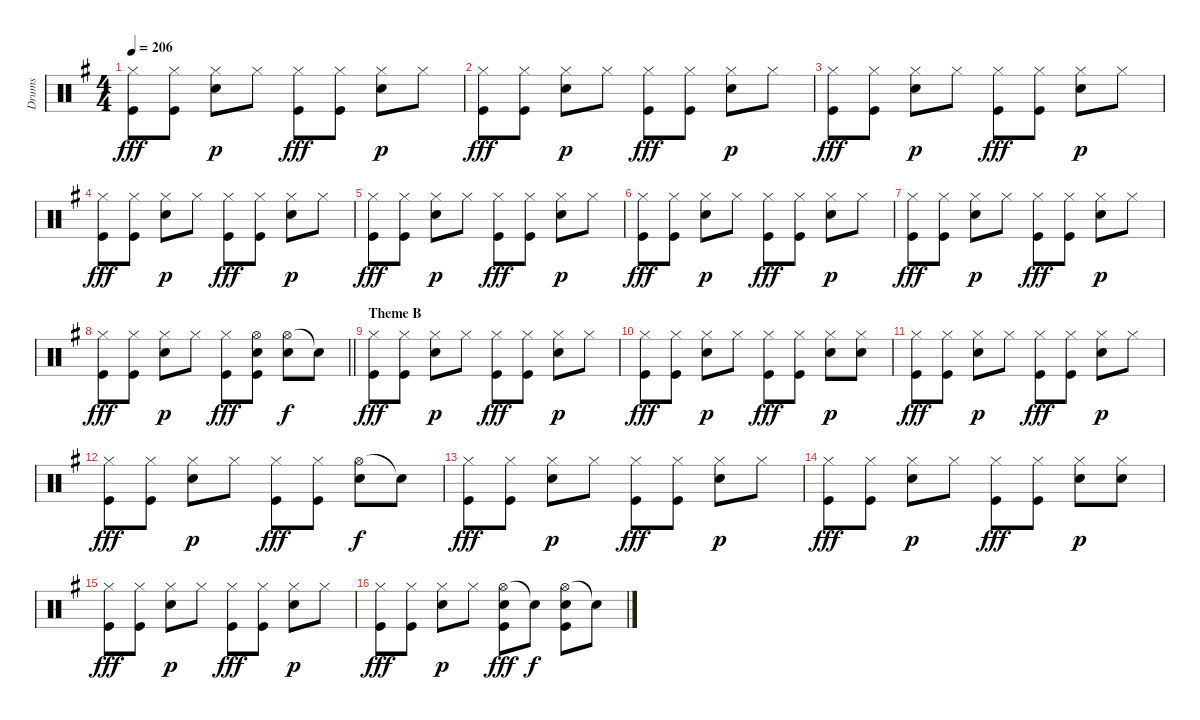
\track ("Drums" "Drums") {instrument percussion}
\staff {score}
\articulation defaults
\ts (4 4)
\tempo 206
\clef neutral
\ks g
("Hi-Hat (closed)" "Kick (hit)").8{dy fff} ("Hi-Hat (closed)" "Kick (hit)").8 ("Hi-Hat (closed)" "Snare (hit) 2").8{dy p} "Hi-Hat (closed)".8 ("Hi-Hat (closed)" "Kick (hit)").8{dy fff} ("Hi-Hat (closed)" "Kick (hit)").8 ("Hi-Hat (closed)" "Snare (hit) 2").8{dy p} "Hi-Hat (closed)".8 |
("Hi-Hat (closed)" "Kick (hit)").8{dy fff} ("Hi-Hat (closed)" "Kick (hit)").8 ("Hi-Hat (closed)" "Snare (hit) 2").8{dy p} "Hi-Hat (closed)".8 ("Hi-Hat (closed)" "Kick (hit)").8{dy fff} ("Hi-Hat (closed)" "Kick (hit)").8 ("Hi-Hat (closed)" "Snare (hit) 2").8{dy p} "Hi-Hat (closed)".8 |
("Hi-Hat (closed)" "Kick (hit)").8{dy fff} ("Hi-Hat (closed)" "Kick (hit)").8 ("Hi-Hat (closed)" "Snare (hit) 2").8{dy p} "Hi-Hat (closed)".8 ("Hi-Hat (closed)" "Kick (hit)").8{dy fff} ("Hi-Hat (closed)" "Kick (hit)").8 ("Hi-Hat (closed)" "Snare (hit) 2").8{dy p} "Hi-Hat (closed)".8 |
("Hi-Hat (closed)" "Kick (hit)").8{dy fff} ("Hi-Hat (closed)" "Kick (hit)").8 ("Hi-Hat (closed)" "Snare (hit) 2").8{dy p} "Hi-Hat (closed)".8 ("Hi-Hat (closed)" "Kick (hit)").8{dy fff} ("Hi-Hat (closed)" "Kick (hit)").8 ("Hi-Hat (closed)" "Snare (hit) 2").8{dy p} "Hi-Hat (closed)".8 |
("Hi-Hat (closed)" "Kick (hit)").8{dy fff} ("Hi-Hat (closed)" "Kick (hit)").8 ("Hi-Hat (closed)" "Snare (hit) 2").8{dy p} "Hi-Hat (closed)".8 ("Hi-Hat (closed)" "Kick (hit)").8{dy fff} ("Hi-Hat (closed)" "Kick (hit)").8 ("Hi-Hat (closed)" "Snare (hit) 2").8{dy p} "Hi-Hat (closed)".8 |
("Hi-Hat (closed)" "Kick (hit)").8{dy fff} ("Hi-Hat (closed)" "Kick (hit)").8 ("Hi-Hat (closed)" "Snare (hit) 2").8{dy p} "Hi-Hat (closed)".8 ("Hi-Hat (closed)" "Kick (hit)").8{dy fff} ("Hi-Hat (closed)" "Kick (hit)").8 ("Hi-Hat (closed)" "Snare (hit) 2").8{dy p} "Hi-Hat (closed)".8 |
("Hi-Hat (closed)" "Kick (hit)").8{dy fff} ("Hi-Hat (closed)" "Kick (hit)").8 ("Hi-Hat (closed)" "Snare (hit) 2").8{dy p} "Hi-Hat (closed)".8 ("Hi-Hat (closed)" "Kick (hit)").8{dy fff} ("Hi-Hat (closed)" "Kick (hit)").8 ("Hi-Hat (closed)" "Snare (hit) 2").8{dy p} "Hi-Hat (closed)".8 |
\barLineRight lightlight
("Hi-Hat (closed)" "Kick (hit)").8{dy fff} ("Hi-Hat (closed)" "Kick (hit)").8 ("Hi-Hat (closed)" "Snare (hit) 2").8{dy p} "Hi-Hat (closed)".8 ("Hi-Hat (closed)" "Kick (hit)").8{dy fff} ("Hi-Hat (open)" "Snare (hit) 2" "Kick (hit)").8 ("Hi-Hat (open)" "Snare (hit) 2").8{dy f} "Snare (hit)"{t}.8 |
\section ("" "Theme B")
("Hi-Hat (closed)" "Kick (hit)").8{dy fff} ("Hi-Hat (closed)" "Kick (hit)").8 ("Hi-Hat (closed)" "Snare (hit) 2").8{dy p} "Hi-Hat (closed)".8 ("Hi-Hat (closed)" "Kick (hit)").8{dy fff} ("Hi-Hat (closed)" "Kick (hit)").8 ("Hi-Hat (closed)" "Snare (hit) 2").8{dy p} "Hi-Hat (closed)".8 |
("Hi-Hat (closed)" "Kick (hit)").8{dy fff} ("Hi-Hat (closed)" "Kick (hit)").8 ("Hi-Hat (closed)" "Snare (hit) 2").8{dy p} "Hi-Hat (closed)".8 ("Hi-Hat (closed)" "Kick (hit)").8{dy fff} ("Hi-Hat (closed)" "Kick (hit)").8 ("Hi-Hat (closed)" "Snare (hit) 2").8{dy p} ("Hi-Hat (closed)" "Snare (hit) 2").8 |
("Hi-Hat (closed)" "Kick (hit)").8{dy fff} ("Hi-Hat (closed)" "Kick (hit)").8 ("Hi-Hat (closed)" "Snare (hit) 2").8{dy p} "Hi-Hat (closed)".8 ("Hi-Hat (closed)" "Kick (hit)").8{dy fff} ("Hi-Hat (closed)" "Kick (hit)").8 ("Hi-Hat (closed)" "Snare (hit) 2").8{dy p} "Hi-Hat (closed)".8 |
("Hi-Hat (closed)" "Kick (hit)").8{dy fff} ("Hi-Hat (closed)" "Kick (hit)").8 ("Hi-Hat (closed)" "Snare (hit) 2").8{dy p} "Hi-Hat (closed)".8 ("Hi-Hat (closed)" "Kick (hit)").8{dy fff} ("Hi-Hat (closed)" "Kick (hit)").8 ("Hi-Hat (open)" "Snare (hit) 2").8{dy f} "Snare (hit)"{t}.8 |
("Hi-Hat (closed)" "Kick (hit)").8{dy fff} ("Hi-Hat (closed)" "Kick (hit)").8 ("Hi-Hat (closed)" "Snare (hit) 2").8{dy p} "Hi-Hat (closed)".8 ("Hi-Hat (closed)" "Kick (hit)").8{dy fff} ("Hi-Hat (closed)" "Kick (hit)").8 ("Hi-Hat (closed)" "Snare (hit) 2").8{dy p} "Hi-Hat (closed)".8 |
("Hi-Hat (closed)" "Kick (hit)").8{dy fff} ("Hi-Hat (closed)" "Kick (hit)").8 ("Hi-Hat (closed)" "Snare (hit) 2").8{dy p} "Hi-Hat (closed)".8 ("Hi-Hat (closed)" "Kick (hit)").8{dy fff} ("Hi-Hat (closed)" "Kick (hit)").8 ("Hi-Hat (closed)" "Snare (hit) 2").8{dy p} ("Hi-Hat (closed)" "Snare (hit) 2").8 |
("Hi-Hat (closed)" "Kick (hit)").8{dy fff} ("Hi-Hat (closed)" "Kick (hit)").8 ("Hi-Hat (closed)" "Snare (hit) 2").8{dy p} "Hi-Hat (closed)".8 ("Hi-Hat (closed)" "Kick (hit)").8{dy fff} ("Hi-Hat (closed)" "Kick (hit)").8 ("Hi-Hat (closed)" "Snare (hit) 2").8{dy p} "Hi-Hat (closed)".8 |
("Hi-Hat (closed)" "Kick (hit)").8{dy fff} ("Hi-Hat (closed)" "Kick (hit)").8 ("Hi-Hat (closed)" "Snare (hit) 2").8{dy p} "Hi-Hat (closed)".8 ("Hi-Hat (open)" "Snare (hit) 2" "Kick (hit)").8{dy fff} "Snare (hit)"{t}.8{dy f} ("Hi-Hat (open)" "Snare (hit) 2" "Kick (hit)").8 "Snare (hit)"{t}.8
